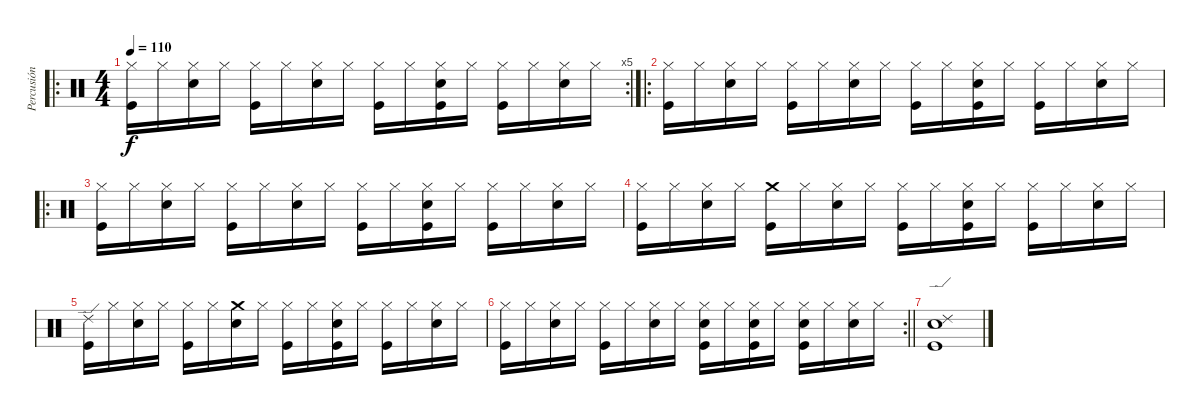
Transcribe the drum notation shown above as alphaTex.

\track ("Percusión" "Percusión") {instrument percussion}
\staff {score}
\articulation defaults
\ro
\rc 5
\ts (4 4)
\tempo 110
\clef neutral
\ks c
("Hi-Hat (closed)" "Kick (hit)").16{dy f} "Hi-Hat (closed)".16 ("Hi-Hat (closed)" "Electric Snare (hit)").16 "Hi-Hat (closed)".16 ("Hi-Hat (closed)" "Kick (hit)").16 "Hi-Hat (closed)".16 ("Hi-Hat (closed)" "Electric Snare (hit)").16 "Hi-Hat (closed)".16 ("Hi-Hat (closed)" "Kick (hit)").16 "Hi-Hat (closed)".16 ("Hi-Hat (closed)" "Electric Snare (hit)" "Kick (hit)").16 "Hi-Hat (closed)".16 ("Hi-Hat (closed)" "Kick (hit)").16 "Hi-Hat (closed)".16 ("Hi-Hat (closed)" "Electric Snare (hit)").16 "Hi-Hat (closed)".16 |
\ro
("Hi-Hat (closed)" "Kick (hit)").16 "Hi-Hat (closed)".16 ("Hi-Hat (closed)" "Electric Snare (hit)").16 "Hi-Hat (closed)".16 ("Hi-Hat (closed)" "Kick (hit)").16 "Hi-Hat (closed)".16 ("Hi-Hat (closed)" "Electric Snare (hit)").16 "Hi-Hat (closed)".16 ("Hi-Hat (closed)" "Kick (hit)").16 "Hi-Hat (closed)".16 ("Hi-Hat (closed)" "Electric Snare (hit)" "Kick (hit)").16 "Hi-Hat (closed)".16 ("Hi-Hat (closed)" "Kick (hit)").16 "Hi-Hat (closed)".16 ("Hi-Hat (closed)" "Electric Snare (hit)").16 "Hi-Hat (closed)".16 |
\ro
("Hi-Hat (closed)" "Kick (hit)").16 "Hi-Hat (closed)".16 ("Hi-Hat (closed)" "Electric Snare (hit)").16 "Hi-Hat (closed)".16 ("Hi-Hat (closed)" "Kick (hit)").16 "Hi-Hat (closed)".16 ("Hi-Hat (closed)" "Electric Snare (hit)").16 "Hi-Hat (closed)".16 ("Hi-Hat (closed)" "Kick (hit)").16 "Hi-Hat (closed)".16 ("Hi-Hat (closed)" "Electric Snare (hit)" "Kick (hit)").16 "Hi-Hat (closed)".16 ("Hi-Hat (closed)" "Kick (hit)").16 "Hi-Hat (closed)".16 ("Hi-Hat (closed)" "Electric Snare (hit)").16 "Hi-Hat (closed)".16 |
("Hi-Hat (closed)" "Kick (hit)").16 "Hi-Hat (closed)".16 ("Hi-Hat (closed)" "Electric Snare (hit)").16 "Hi-Hat (closed)".16 ("Crash medium (hit)" "Kick (hit)").16 "Hi-Hat (closed)".16 ("Hi-Hat (closed)" "Electric Snare (hit)").16 "Hi-Hat (closed)".16 ("Hi-Hat (closed)" "Kick (hit)").16 "Hi-Hat (closed)".16 ("Hi-Hat (closed)" "Electric Snare (hit)" "Kick (hit)").16 "Hi-Hat (closed)".16 ("Hi-Hat (closed)" "Kick (hit)").16 "Hi-Hat (closed)".16 ("Hi-Hat (closed)" "Electric Snare (hit)").16 "Hi-Hat (closed)".16 |
("Ride (edge) 2" "Kick (hit)").16 "Hi-Hat (closed)".16 ("Hi-Hat (closed)" "Electric Snare (hit)").16 "Hi-Hat (closed)".16 ("Hi-Hat (closed)" "Kick (hit)").16 "Hi-Hat (closed)".16 ("Crash medium (hit)" "Electric Snare (hit)").16 "Hi-Hat (closed)".16 ("Hi-Hat (closed)" "Kick (hit)").16 "Hi-Hat (closed)".16 ("Hi-Hat (closed)" "Electric Snare (hit)" "Kick (hit)").16 "Hi-Hat (closed)".16 ("Hi-Hat (closed)" "Kick (hit)").16 "Hi-Hat (closed)".16 ("Hi-Hat (closed)" "Electric Snare (hit)").16 "Hi-Hat (closed)".16 |
\rc 2
\barLineRight lightlight
("Hi-Hat (closed)" "Kick (hit)").16 "Hi-Hat (closed)".16 ("Hi-Hat (closed)" "Electric Snare (hit)").16 "Hi-Hat (closed)".16 ("Hi-Hat (closed)" "Kick (hit)").16 "Hi-Hat (closed)".16 ("Hi-Hat (closed)" "Electric Snare (hit)").16 "Hi-Hat (closed)".16 ("Hi-Hat (closed)" "Electric Snare (hit)" "Kick (hit)").16 "Hi-Hat (closed)".16 ("Hi-Hat (closed)" "Electric Snare (hit)" "Kick (hit)").16 "Hi-Hat (closed)".16 ("Hi-Hat (closed)" "Electric Snare (hit)" "Kick (hit)").16 "Hi-Hat (closed)".16 ("Hi-Hat (closed)" "Electric Snare (hit)").16 "Hi-Hat (closed)".16 |
("Ride (edge) 2" "Electric Snare (hit)" "Kick (hit)").1
